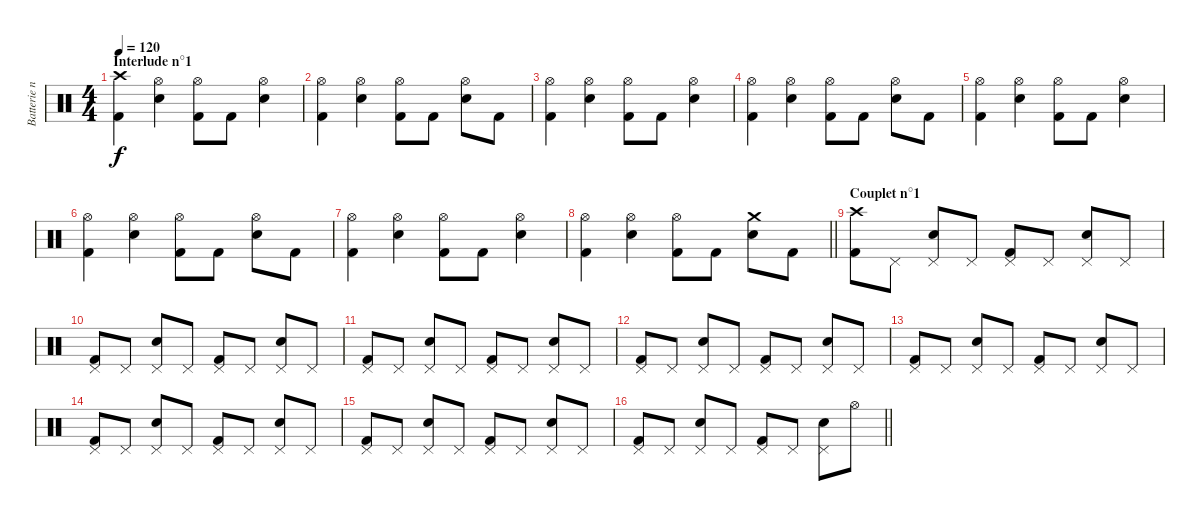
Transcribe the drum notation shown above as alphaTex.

\track ("Batterie n°3" "Batterie n") {instrument percussion}
\staff {score}
\articulation defaults
\ts (4 4)
\section ("" "Interlude n°1")
\tempo 120
\clef neutral
\ks c
("Crash high (hit)" "Kick (hit) 2").4{dy f} ("Hi-Hat (open)" "Snare (hit) 2").4 ("Hi-Hat (open)" "Kick (hit) 2").8 "Kick (hit) 2".8 ("Hi-Hat (open)" "Snare (hit) 2").4 |
("Hi-Hat (open)" "Kick (hit) 2").4 ("Hi-Hat (open)" "Snare (hit) 2").4 ("Hi-Hat (open)" "Kick (hit) 2").8 "Kick (hit) 2".8 ("Hi-Hat (open)" "Snare (hit) 2").8 "Kick (hit) 2".8 |
("Hi-Hat (open)" "Kick (hit) 2").4 ("Hi-Hat (open)" "Snare (hit) 2").4 ("Hi-Hat (open)" "Kick (hit) 2").8 "Kick (hit) 2".8 ("Hi-Hat (open)" "Snare (hit) 2").4 |
("Hi-Hat (open)" "Kick (hit) 2").4 ("Hi-Hat (open)" "Snare (hit) 2").4 ("Hi-Hat (open)" "Kick (hit) 2").8 "Kick (hit) 2".8 ("Hi-Hat (open)" "Snare (hit) 2").8 "Kick (hit) 2".8 |
("Hi-Hat (open)" "Kick (hit) 2").4 ("Hi-Hat (open)" "Snare (hit) 2").4 ("Hi-Hat (open)" "Kick (hit) 2").8 "Kick (hit) 2".8 ("Hi-Hat (open)" "Snare (hit) 2").4 |
("Hi-Hat (open)" "Kick (hit) 2").4 ("Hi-Hat (open)" "Snare (hit) 2").4 ("Hi-Hat (open)" "Kick (hit) 2").8 "Kick (hit) 2".8 ("Hi-Hat (open)" "Snare (hit) 2").8 "Kick (hit) 2".8 |
("Hi-Hat (open)" "Kick (hit) 2").4 ("Hi-Hat (open)" "Snare (hit) 2").4 ("Hi-Hat (open)" "Kick (hit) 2").8 "Kick (hit) 2".8 ("Hi-Hat (open)" "Snare (hit) 2").4 |
\barLineRight lightlight
("Hi-Hat (open)" "Kick (hit) 2").4 ("Hi-Hat (open)" "Snare (hit) 2").4 ("Hi-Hat (open)" "Kick (hit) 2").8 "Kick (hit) 2".8 ("Crash medium (hit)" "Snare (hit) 2").8 "Kick (hit) 2".8 |
\section ("" "Couplet n°1")
("Crash high (hit)" "Kick (hit) 2").8 "Pedal Hi-Hat (hit)".8 ("Pedal Hi-Hat (hit)" "Snare (hit) 2").8 "Pedal Hi-Hat (hit)".8 ("Pedal Hi-Hat (hit)" "Kick (hit) 2").8 "Pedal Hi-Hat (hit)".8 ("Pedal Hi-Hat (hit)" "Snare (hit) 2").8 "Pedal Hi-Hat (hit)".8 |
("Pedal Hi-Hat (hit)" "Kick (hit) 2").8 "Pedal Hi-Hat (hit)".8 ("Pedal Hi-Hat (hit)" "Snare (hit) 2").8 "Pedal Hi-Hat (hit)".8 ("Pedal Hi-Hat (hit)" "Kick (hit) 2").8 "Pedal Hi-Hat (hit)".8 ("Pedal Hi-Hat (hit)" "Snare (hit) 2").8 "Pedal Hi-Hat (hit)".8 |
("Pedal Hi-Hat (hit)" "Kick (hit) 2").8 "Pedal Hi-Hat (hit)".8 ("Pedal Hi-Hat (hit)" "Snare (hit) 2").8 "Pedal Hi-Hat (hit)".8 ("Pedal Hi-Hat (hit)" "Kick (hit) 2").8 "Pedal Hi-Hat (hit)".8 ("Pedal Hi-Hat (hit)" "Snare (hit) 2").8 "Pedal Hi-Hat (hit)".8 |
("Pedal Hi-Hat (hit)" "Kick (hit) 2").8 "Pedal Hi-Hat (hit)".8 ("Pedal Hi-Hat (hit)" "Snare (hit) 2").8 "Pedal Hi-Hat (hit)".8 ("Pedal Hi-Hat (hit)" "Kick (hit) 2").8 "Pedal Hi-Hat (hit)".8 ("Pedal Hi-Hat (hit)" "Snare (hit) 2").8 "Pedal Hi-Hat (hit)".8 |
("Pedal Hi-Hat (hit)" "Kick (hit) 2").8 "Pedal Hi-Hat (hit)".8 ("Pedal Hi-Hat (hit)" "Snare (hit) 2").8 "Pedal Hi-Hat (hit)".8 ("Pedal Hi-Hat (hit)" "Kick (hit) 2").8 "Pedal Hi-Hat (hit)".8 ("Pedal Hi-Hat (hit)" "Snare (hit) 2").8 "Pedal Hi-Hat (hit)".8 |
("Pedal Hi-Hat (hit)" "Kick (hit) 2").8 "Pedal Hi-Hat (hit)".8 ("Pedal Hi-Hat (hit)" "Snare (hit) 2").8 "Pedal Hi-Hat (hit)".8 ("Pedal Hi-Hat (hit)" "Kick (hit) 2").8 "Pedal Hi-Hat (hit)".8 ("Pedal Hi-Hat (hit)" "Snare (hit) 2").8 "Pedal Hi-Hat (hit)".8 |
("Pedal Hi-Hat (hit)" "Kick (hit) 2").8 "Pedal Hi-Hat (hit)".8 ("Pedal Hi-Hat (hit)" "Snare (hit) 2").8 "Pedal Hi-Hat (hit)".8 ("Pedal Hi-Hat (hit)" "Kick (hit) 2").8 "Pedal Hi-Hat (hit)".8 ("Pedal Hi-Hat (hit)" "Snare (hit) 2").8 "Pedal Hi-Hat (hit)".8 |
\barLineRight lightlight
("Pedal Hi-Hat (hit)" "Kick (hit) 2").8 "Pedal Hi-Hat (hit)".8 ("Pedal Hi-Hat (hit)" "Snare (hit) 2").8 "Pedal Hi-Hat (hit)".8 ("Pedal Hi-Hat (hit)" "Kick (hit) 2").8 "Pedal Hi-Hat (hit)".8 ("Pedal Hi-Hat (hit)" "Snare (hit) 2").8 "Hi-Hat (open)".8
